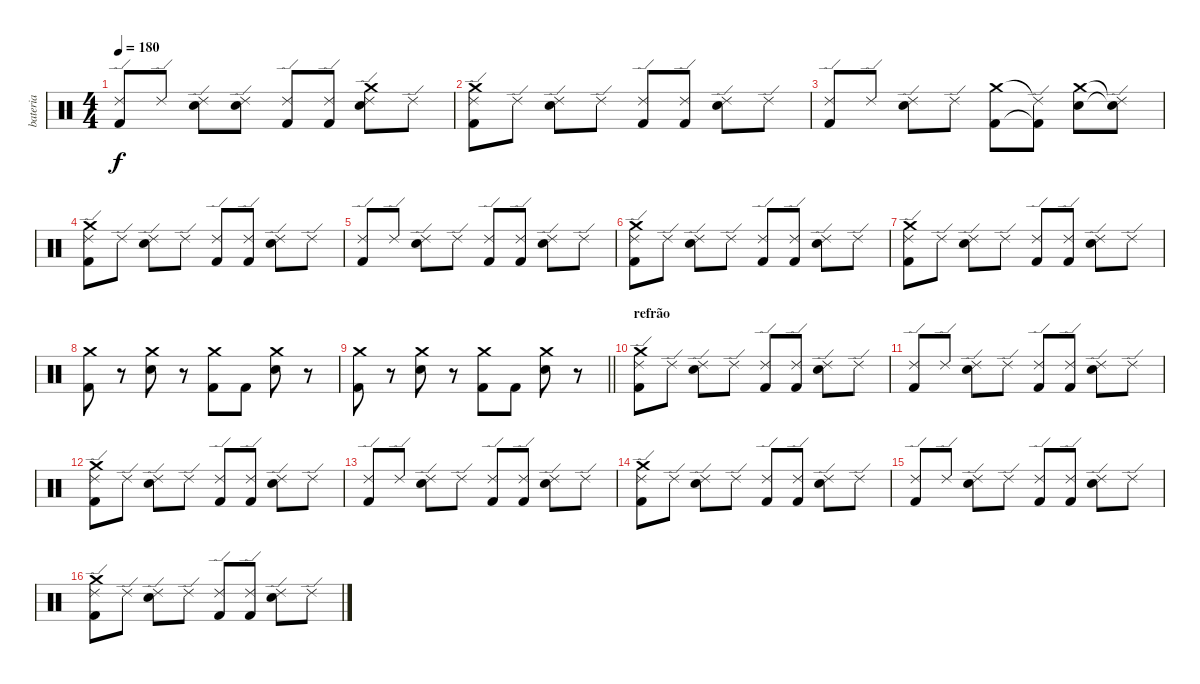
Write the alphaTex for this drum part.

\track ("bateria" "bateria") {instrument percussion}
\staff {score}
\articulation defaults
\ts (4 4)
\tempo 180
\clef neutral
\ks c
("Ride (edge) 2" "Kick (hit) 2").8{dy f} "Ride (edge) 2".8 ("Ride (edge) 2" "Electric Snare (hit)").8 ("Ride (edge) 2" "Electric Snare (hit)").8 ("Ride (edge) 2" "Kick (hit) 2").8 ("Ride (edge) 2" "Kick (hit) 2").8 ("Ride (edge) 2" "Electric Snare (hit)" "Crash medium (hit)").8 "Ride (edge) 2".8 |
("Ride (edge) 2" "Kick (hit) 2" "Crash medium (hit)").8 "Ride (edge) 2".8 ("Ride (edge) 2" "Electric Snare (hit)").8 "Ride (edge) 2".8 ("Ride (edge) 2" "Kick (hit) 2").8 ("Ride (edge) 2" "Kick (hit) 2").8 ("Ride (edge) 2" "Electric Snare (hit)").8 "Ride (edge) 2".8 |
("Ride (edge) 2" "Kick (hit) 2").8 "Ride (edge) 2".8 ("Ride (edge) 2" "Electric Snare (hit)").8 "Ride (edge) 2".8 ("Crash medium (hit)" "Kick (hit) 2").8 ("Ride (edge) 2"{t} "Kick (hit) 2"{t}).8 ("Crash medium (hit)" "Electric Snare (hit)").8 ("Ride (edge) 2"{t} "Snare (hit)"{t}).8 |
("Ride (edge) 2" "Kick (hit) 2" "Crash medium (hit)").8 "Ride (edge) 2".8 ("Ride (edge) 2" "Electric Snare (hit)").8 "Ride (edge) 2".8 ("Ride (edge) 2" "Kick (hit) 2").8 ("Ride (edge) 2" "Kick (hit) 2").8 ("Ride (edge) 2" "Electric Snare (hit)").8 "Ride (edge) 2".8 |
("Ride (edge) 2" "Kick (hit) 2").8 "Ride (edge) 2".8 ("Ride (edge) 2" "Electric Snare (hit)").8 "Ride (edge) 2".8 ("Ride (edge) 2" "Kick (hit) 2").8 ("Ride (edge) 2" "Kick (hit) 2").8 ("Ride (edge) 2" "Electric Snare (hit)").8 "Ride (edge) 2".8 |
("Ride (edge) 2" "Kick (hit) 2" "Crash medium (hit)").8 "Ride (edge) 2".8 ("Ride (edge) 2" "Electric Snare (hit)").8 "Ride (edge) 2".8 ("Ride (edge) 2" "Kick (hit) 2").8 ("Ride (edge) 2" "Kick (hit) 2").8 ("Ride (edge) 2" "Electric Snare (hit)").8 "Ride (edge) 2".8 |
("Ride (edge) 2" "Kick (hit) 2" "Crash medium (hit)").8 "Ride (edge) 2".8 ("Ride (edge) 2" "Electric Snare (hit)").8 "Ride (edge) 2".8 ("Ride (edge) 2" "Kick (hit) 2").8 ("Ride (edge) 2" "Kick (hit) 2").8 ("Ride (edge) 2" "Electric Snare (hit)").8 "Ride (edge) 2".8 |
("Crash medium (hit)" "Kick (hit) 2").8 r.8 ("Crash medium (hit)" "Electric Snare (hit)").8 r.8 ("Crash medium (hit)" "Kick (hit) 2").8 "Kick (hit) 2".8 ("Crash medium (hit)" "Electric Snare (hit)").8 r.8 |
\barLineRight lightlight
("Crash medium (hit)" "Kick (hit) 2").8 r.8 ("Crash medium (hit)" "Electric Snare (hit)").8 r.8 ("Crash medium (hit)" "Kick (hit) 2").8 "Kick (hit) 2".8 ("Crash medium (hit)" "Electric Snare (hit)").8 r.8 |
\section ("" "refrão")
("Ride (edge) 2" "Kick (hit) 2" "Crash medium (hit)").8 "Ride (edge) 2".8 ("Ride (edge) 2" "Electric Snare (hit)").8 "Ride (edge) 2".8 ("Ride (edge) 2" "Kick (hit) 2").8 ("Ride (edge) 2" "Kick (hit) 2").8 ("Ride (edge) 2" "Electric Snare (hit)").8 "Ride (edge) 2".8 |
("Ride (edge) 2" "Kick (hit) 2").8 "Ride (edge) 2".8 ("Ride (edge) 2" "Electric Snare (hit)").8 "Ride (edge) 2".8 ("Ride (edge) 2" "Kick (hit) 2").8 ("Ride (edge) 2" "Kick (hit) 2").8 ("Ride (edge) 2" "Electric Snare (hit)").8 "Ride (edge) 2".8 |
("Ride (edge) 2" "Kick (hit) 2" "Crash medium (hit)").8 "Ride (edge) 2".8 ("Ride (edge) 2" "Electric Snare (hit)").8 "Ride (edge) 2".8 ("Ride (edge) 2" "Kick (hit) 2").8 ("Ride (edge) 2" "Kick (hit) 2").8 ("Ride (edge) 2" "Electric Snare (hit)").8 "Ride (edge) 2".8 |
("Ride (edge) 2" "Kick (hit) 2").8 "Ride (edge) 2".8 ("Ride (edge) 2" "Electric Snare (hit)").8 "Ride (edge) 2".8 ("Ride (edge) 2" "Kick (hit) 2").8 ("Ride (edge) 2" "Kick (hit) 2").8 ("Ride (edge) 2" "Electric Snare (hit)").8 "Ride (edge) 2".8 |
("Ride (edge) 2" "Kick (hit) 2" "Crash medium (hit)").8 "Ride (edge) 2".8 ("Ride (edge) 2" "Electric Snare (hit)").8 "Ride (edge) 2".8 ("Ride (edge) 2" "Kick (hit) 2").8 ("Ride (edge) 2" "Kick (hit) 2").8 ("Ride (edge) 2" "Electric Snare (hit)").8 "Ride (edge) 2".8 |
("Ride (edge) 2" "Kick (hit) 2").8 "Ride (edge) 2".8 ("Ride (edge) 2" "Electric Snare (hit)").8 "Ride (edge) 2".8 ("Ride (edge) 2" "Kick (hit) 2").8 ("Ride (edge) 2" "Kick (hit) 2").8 ("Ride (edge) 2" "Electric Snare (hit)").8 "Ride (edge) 2".8 |
("Ride (edge) 2" "Kick (hit) 2" "Crash medium (hit)").8 "Ride (edge) 2".8 ("Ride (edge) 2" "Electric Snare (hit)").8 "Ride (edge) 2".8 ("Ride (edge) 2" "Kick (hit) 2").8 ("Ride (edge) 2" "Kick (hit) 2").8 ("Ride (edge) 2" "Electric Snare (hit)").8 "Ride (edge) 2".8
